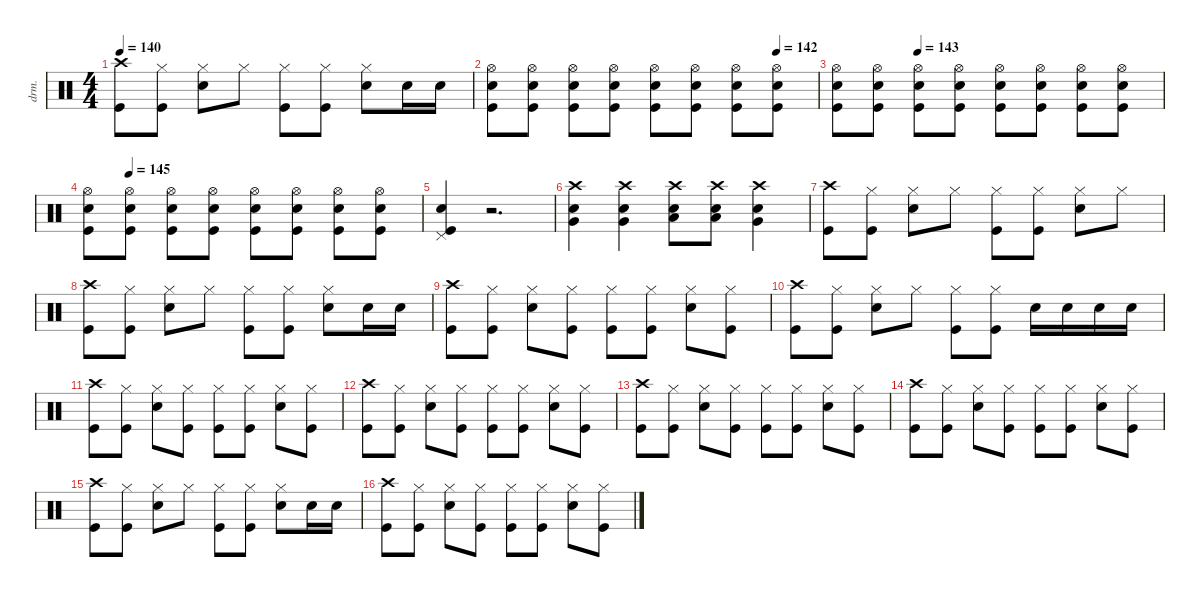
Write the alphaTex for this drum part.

\defaultSystemsLayout 4
\hideDynamics
\bracketExtendMode nobrackets
\otherSystemsTrackNameOrientation horizontal
\track ("Drums" "drm.") {instrument percussion}
\staff {score}
\articulation defaults
\ts (4 4)
\tempo 140
\clef neutral
\ks c
("Crash high (hit)" "Kick (hit)").8{dy f} ("Kick (hit)" "Hi-Hat (closed)").8 ("Snare (hit) 2" "Hi-Hat (closed)").8 "Hi-Hat (closed)".8 ("Kick (hit)" "Hi-Hat (closed)").8 ("Kick (hit)" "Hi-Hat (closed)").8 ("Snare (hit) 2" "Hi-Hat (closed)").8 "Snare (hit) 2".16 "Snare (hit) 2".16 |
\tempo (142 0.875)
("Hi-Hat (open)" "Snare (hit) 2" "Kick (hit)").8 ("Hi-Hat (open)" "Snare (hit) 2" "Kick (hit)").8 ("Hi-Hat (open)" "Snare (hit) 2" "Kick (hit)").8 ("Hi-Hat (open)" "Snare (hit) 2" "Kick (hit)").8 ("Hi-Hat (open)" "Snare (hit) 2" "Kick (hit)").8 ("Hi-Hat (open)" "Snare (hit) 2" "Kick (hit)").8 ("Hi-Hat (open)" "Snare (hit) 2" "Kick (hit)").8 ("Hi-Hat (open)" "Snare (hit) 2" "Kick (hit)").8 |
\tempo (143 0.25)
("Hi-Hat (open)" "Snare (hit) 2" "Kick (hit)").8 ("Hi-Hat (open)" "Snare (hit) 2" "Kick (hit)").8 ("Hi-Hat (open)" "Snare (hit) 2" "Kick (hit)").8 ("Hi-Hat (open)" "Snare (hit) 2" "Kick (hit)").8 ("Hi-Hat (open)" "Snare (hit) 2" "Kick (hit)").8 ("Hi-Hat (open)" "Snare (hit) 2" "Kick (hit)").8 ("Hi-Hat (open)" "Snare (hit) 2" "Kick (hit)").8 ("Hi-Hat (open)" "Snare (hit) 2" "Kick (hit)").8 |
\tempo (145 0.125)
("Hi-Hat (open)" "Snare (hit) 2" "Kick (hit)").8 ("Hi-Hat (open)" "Snare (hit) 2" "Kick (hit)").8 ("Hi-Hat (open)" "Snare (hit) 2" "Kick (hit)").8 ("Hi-Hat (open)" "Snare (hit) 2" "Kick (hit)").8 ("Hi-Hat (open)" "Snare (hit) 2" "Kick (hit)").8 ("Hi-Hat (open)" "Snare (hit) 2" "Kick (hit)").8 ("Hi-Hat (open)" "Snare (hit) 2" "Kick (hit)").8 ("Hi-Hat (open)" "Snare (hit) 2" "Kick (hit)").8 |
("Pedal Hi-Hat (hit)" "Snare (hit) 2" "Kick (hit)").4 r.2{d} |
("Very Low Tom (hit)" "Crash high (hit)" "Snare (hit) 2").4{dy fff} ("Very Low Tom (hit)" "Crash high (hit)" "Snare (hit) 2").4 ("Low Tom (hit)" "Crash high (hit)" "Snare (hit) 2").8 ("Low Floor Tom (hit)" "Crash high (hit)" "Snare (hit) 2").8 ("Very Low Tom (hit)" "Crash high (hit)" "Snare (hit) 2").4 |
("Crash high (hit)" "Kick (hit)").8{dy f} ("Kick (hit)" "Hi-Hat (closed)").8 ("Snare (hit) 2" "Hi-Hat (closed)").8 "Hi-Hat (closed)".8 ("Kick (hit)" "Hi-Hat (closed)").8 ("Kick (hit)" "Hi-Hat (closed)").8 ("Snare (hit) 2" "Hi-Hat (closed)").8 "Hi-Hat (closed)".8 |
("Crash high (hit)" "Kick (hit)").8 ("Kick (hit)" "Hi-Hat (closed)").8 ("Snare (hit) 2" "Hi-Hat (closed)").8 "Hi-Hat (closed)".8 ("Kick (hit)" "Hi-Hat (closed)").8 ("Kick (hit)" "Hi-Hat (closed)").8 ("Snare (hit) 2" "Hi-Hat (closed)").8 "Snare (hit) 2".16 "Snare (hit) 2".16 |
("Crash high (hit)" "Kick (hit)").8 ("Kick (hit)" "Hi-Hat (closed)").8 ("Snare (hit) 2" "Hi-Hat (closed)").8 ("Kick (hit)" "Hi-Hat (closed)").8 ("Kick (hit)" "Hi-Hat (closed)").8 ("Kick (hit)" "Hi-Hat (closed)").8 ("Snare (hit) 2" "Hi-Hat (closed)").8 ("Kick (hit)" "Hi-Hat (closed)").8 |
("Crash high (hit)" "Kick (hit)").8 ("Kick (hit)" "Hi-Hat (closed)").8 ("Snare (hit) 2" "Hi-Hat (closed)").8 "Hi-Hat (closed)".8 ("Kick (hit)" "Hi-Hat (closed)").8 ("Kick (hit)" "Hi-Hat (closed)").8 "Snare (hit) 2".16 "Snare (hit) 2".16 "Snare (hit) 2".16 "Snare (hit) 2".16 |
("Crash high (hit)" "Kick (hit)").8 ("Kick (hit)" "Hi-Hat (closed)").8 ("Snare (hit) 2" "Hi-Hat (closed)").8 ("Kick (hit)" "Hi-Hat (closed)").8 ("Kick (hit)" "Hi-Hat (closed)").8 ("Kick (hit)" "Hi-Hat (closed)").8 ("Snare (hit) 2" "Hi-Hat (closed)").8 ("Kick (hit)" "Hi-Hat (closed)").8 |
("Crash high (hit)" "Kick (hit)").8 ("Kick (hit)" "Hi-Hat (closed)").8 ("Snare (hit) 2" "Hi-Hat (closed)").8 ("Kick (hit)" "Hi-Hat (closed)").8 ("Kick (hit)" "Hi-Hat (closed)").8 ("Kick (hit)" "Hi-Hat (closed)").8 ("Snare (hit) 2" "Hi-Hat (closed)").8 ("Kick (hit)" "Hi-Hat (closed)").8 |
("Crash high (hit)" "Kick (hit)").8 ("Kick (hit)" "Hi-Hat (closed)").8 ("Snare (hit) 2" "Hi-Hat (closed)").8 ("Kick (hit)" "Hi-Hat (closed)").8 ("Kick (hit)" "Hi-Hat (closed)").8 ("Kick (hit)" "Hi-Hat (closed)").8 ("Snare (hit) 2" "Hi-Hat (closed)").8 ("Kick (hit)" "Hi-Hat (closed)").8 |
("Crash high (hit)" "Kick (hit)").8 ("Kick (hit)" "Hi-Hat (closed)").8 ("Snare (hit) 2" "Hi-Hat (closed)").8 ("Kick (hit)" "Hi-Hat (closed)").8 ("Kick (hit)" "Hi-Hat (closed)").8 ("Kick (hit)" "Hi-Hat (closed)").8 ("Snare (hit) 2" "Hi-Hat (closed)").8 ("Kick (hit)" "Hi-Hat (closed)").8 |
("Crash high (hit)" "Kick (hit)").8 ("Kick (hit)" "Hi-Hat (closed)").8 ("Snare (hit) 2" "Hi-Hat (closed)").8 "Hi-Hat (closed)".8 ("Kick (hit)" "Hi-Hat (closed)").8 ("Kick (hit)" "Hi-Hat (closed)").8 ("Snare (hit) 2" "Hi-Hat (closed)").8 "Snare (hit) 2".16 "Snare (hit) 2".16 |
("Crash high (hit)" "Kick (hit)").8 ("Kick (hit)" "Hi-Hat (closed)").8 ("Snare (hit) 2" "Hi-Hat (closed)").8 ("Kick (hit)" "Hi-Hat (closed)").8 ("Kick (hit)" "Hi-Hat (closed)").8 ("Kick (hit)" "Hi-Hat (closed)").8 ("Snare (hit) 2" "Hi-Hat (closed)").8 ("Kick (hit)" "Hi-Hat (closed)").8
